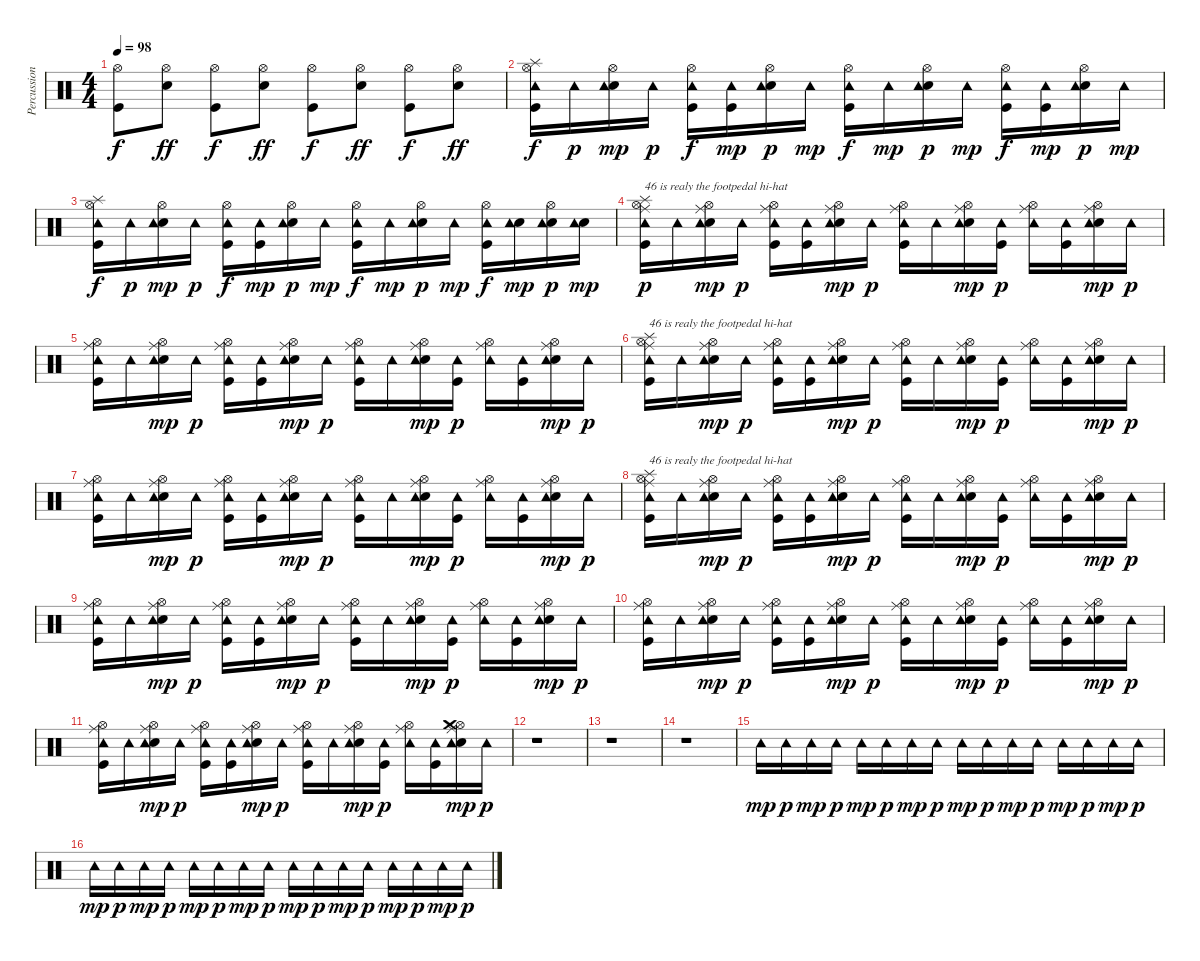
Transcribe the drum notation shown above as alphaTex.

\track ("Percussion" "Percussion") {instrument percussion}
\staff {score}
\articulation defaults
\ts (4 4)
\tempo 98
\clef neutral
\ks c
("Hi-Hat (open)" "Kick (hit)").8{dy f} ("Hi-Hat (open)" "Snare (hit) 2").8{dy ff} ("Hi-Hat (open)" "Kick (hit)").8{dy f} ("Hi-Hat (open)" "Snare (hit) 2").8{dy ff} ("Hi-Hat (open)" "Kick (hit)").8{dy f} ("Hi-Hat (open)" "Snare (hit) 2").8{dy ff} ("Hi-Hat (open)" "Kick (hit)").8{dy f} ("Hi-Hat (open)" "Snare (hit) 2").8{dy ff} |
("Splash (hit)" "Hi-Hat (open)" "Kick (hit)" "Tambourine (hit)").16{dy f} "Tambourine (hit)".16{dy p} ("Hi-Hat (open)" "Snare (hit) 2" "Tambourine (hit)").16{dy mp} "Tambourine (hit)".16{dy p} ("Hi-Hat (open)" "Kick (hit)" "Tambourine (hit)").16{dy f} ("Kick (hit)" "Tambourine (hit)").16{dy mp} ("Hi-Hat (open)" "Snare (hit) 2" "Tambourine (hit)").16{dy p} "Tambourine (hit)".16{dy mp} ("Hi-Hat (open)" "Kick (hit)" "Tambourine (hit)").16{dy f} "Tambourine (hit)".16{dy mp} ("Hi-Hat (open)" "Snare (hit) 2" "Tambourine (hit)").16{dy p} "Tambourine (hit)".16{dy mp} ("Hi-Hat (open)" "Kick (hit)" "Tambourine (hit)").16{dy f} ("Kick (hit)" "Tambourine (hit)").16{dy mp} ("Hi-Hat (open)" "Snare (hit) 2" "Tambourine (hit)").16{dy p} "Tambourine (hit)".16{dy mp} |
("Splash (hit)" "Hi-Hat (open)" "Kick (hit)" "Tambourine (hit)").16{dy f} "Tambourine (hit)".16{dy p} ("Hi-Hat (open)" "Snare (hit) 2" "Tambourine (hit)").16{dy mp} "Tambourine (hit)".16{dy p} ("Hi-Hat (open)" "Kick (hit)" "Tambourine (hit)").16{dy f} ("Kick (hit)" "Tambourine (hit)").16{dy mp} ("Hi-Hat (open)" "Snare (hit) 2" "Tambourine (hit)").16{dy p} "Tambourine (hit)".16{dy mp} ("Hi-Hat (open)" "Kick (hit)" "Tambourine (hit)").16{dy f} "Tambourine (hit)".16{dy mp} ("Hi-Hat (open)" "Snare (hit) 2" "Tambourine (hit)").16{dy p} "Tambourine (hit)".16{dy mp} ("Hi-Hat (open)" "Kick (hit)" "Tambourine (hit)").16{dy f} ("Snare (hit) 2" "Tambourine (hit)").16{dy mp} ("Hi-Hat (open)" "Snare (hit) 2" "Tambourine (hit)").16{dy p} ("Snare (hit) 2" "Tambourine (hit)").16{dy mp} |
("Ride (middle)" "Hi-Hat (open)" "Kick (hit)" "Tambourine (hit)" "Splash (hit)").16{txt "46 is realy the footpedal hi-hat" dy p} "Tambourine (hit)".16 ("Ride (middle)" "Hi-Hat (open)" "Snare (hit) 2" "Tambourine (hit)").16{dy mp} "Tambourine (hit)".16{dy p} ("Ride (middle)" "Hi-Hat (open)" "Kick (hit)" "Tambourine (hit)").16 ("Kick (hit)" "Tambourine (hit)").16 ("Ride (middle)" "Hi-Hat (open)" "Snare (hit) 2" "Tambourine (hit)").16{dy mp} "Tambourine (hit)".16{dy p} ("Ride (middle)" "Hi-Hat (open)" "Kick (hit)" "Tambourine (hit)").16 "Tambourine (hit)".16 ("Ride (middle)" "Hi-Hat (open)" "Snare (hit) 2" "Tambourine (hit)").16{dy mp} ("Kick (hit)" "Tambourine (hit)").16{dy p} ("Ride (middle)" "Hi-Hat (open)" "Tambourine (hit)").16 ("Kick (hit)" "Tambourine (hit)").16 ("Ride (middle)" "Hi-Hat (open)" "Snare (hit) 2" "Tambourine (hit)").16{dy mp} "Tambourine (hit)".16{dy p} |
("Ride (middle)" "Hi-Hat (open)" "Kick (hit)" "Tambourine (hit)").16 "Tambourine (hit)".16 ("Ride (middle)" "Hi-Hat (open)" "Snare (hit) 2" "Tambourine (hit)").16{dy mp} "Tambourine (hit)".16{dy p} ("Ride (middle)" "Hi-Hat (open)" "Kick (hit)" "Tambourine (hit)").16 ("Kick (hit)" "Tambourine (hit)").16 ("Ride (middle)" "Hi-Hat (open)" "Snare (hit) 2" "Tambourine (hit)").16{dy mp} "Tambourine (hit)".16{dy p} ("Ride (middle)" "Hi-Hat (open)" "Kick (hit)" "Tambourine (hit)").16 "Tambourine (hit)".16 ("Ride (middle)" "Hi-Hat (open)" "Snare (hit) 2" "Tambourine (hit)").16{dy mp} ("Kick (hit)" "Tambourine (hit)").16{dy p} ("Ride (middle)" "Hi-Hat (open)" "Tambourine (hit)").16 ("Kick (hit)" "Tambourine (hit)").16 ("Ride (middle)" "Hi-Hat (open)" "Snare (hit) 2" "Tambourine (hit)").16{dy mp} "Tambourine (hit)".16{dy p} |
("Ride (middle)" "Hi-Hat (open)" "Kick (hit)" "Tambourine (hit)" "Splash (hit)").16{txt "46 is realy the footpedal hi-hat"} "Tambourine (hit)".16 ("Ride (middle)" "Hi-Hat (open)" "Snare (hit) 2" "Tambourine (hit)").16{dy mp} "Tambourine (hit)".16{dy p} ("Ride (middle)" "Hi-Hat (open)" "Kick (hit)" "Tambourine (hit)").16 ("Kick (hit)" "Tambourine (hit)").16 ("Ride (middle)" "Hi-Hat (open)" "Snare (hit) 2" "Tambourine (hit)").16{dy mp} "Tambourine (hit)".16{dy p} ("Ride (middle)" "Hi-Hat (open)" "Kick (hit)" "Tambourine (hit)").16 "Tambourine (hit)".16 ("Ride (middle)" "Hi-Hat (open)" "Snare (hit) 2" "Tambourine (hit)").16{dy mp} ("Kick (hit)" "Tambourine (hit)").16{dy p} ("Ride (middle)" "Hi-Hat (open)" "Tambourine (hit)").16 ("Kick (hit)" "Tambourine (hit)").16 ("Ride (middle)" "Hi-Hat (open)" "Snare (hit) 2" "Tambourine (hit)").16{dy mp} "Tambourine (hit)".16{dy p} |
("Ride (middle)" "Hi-Hat (open)" "Kick (hit)" "Tambourine (hit)").16 "Tambourine (hit)".16 ("Ride (middle)" "Hi-Hat (open)" "Snare (hit) 2" "Tambourine (hit)").16{dy mp} "Tambourine (hit)".16{dy p} ("Ride (middle)" "Hi-Hat (open)" "Kick (hit)" "Tambourine (hit)").16 ("Kick (hit)" "Tambourine (hit)").16 ("Ride (middle)" "Hi-Hat (open)" "Snare (hit) 2" "Tambourine (hit)").16{dy mp} "Tambourine (hit)".16{dy p} ("Ride (middle)" "Hi-Hat (open)" "Kick (hit)" "Tambourine (hit)").16 "Tambourine (hit)".16 ("Ride (middle)" "Hi-Hat (open)" "Snare (hit) 2" "Tambourine (hit)").16{dy mp} ("Kick (hit)" "Tambourine (hit)").16{dy p} ("Ride (middle)" "Hi-Hat (open)" "Tambourine (hit)").16 ("Kick (hit)" "Tambourine (hit)").16 ("Ride (middle)" "Hi-Hat (open)" "Snare (hit) 2" "Tambourine (hit)").16{dy mp} "Tambourine (hit)".16{dy p} |
("Ride (middle)" "Hi-Hat (open)" "Kick (hit)" "Tambourine (hit)" "Splash (hit)").16{txt "46 is realy the footpedal hi-hat"} "Tambourine (hit)".16 ("Ride (middle)" "Hi-Hat (open)" "Snare (hit) 2" "Tambourine (hit)").16{dy mp} "Tambourine (hit)".16{dy p} ("Ride (middle)" "Hi-Hat (open)" "Kick (hit)" "Tambourine (hit)").16 ("Kick (hit)" "Tambourine (hit)").16 ("Ride (middle)" "Hi-Hat (open)" "Snare (hit) 2" "Tambourine (hit)").16{dy mp} "Tambourine (hit)".16{dy p} ("Ride (middle)" "Hi-Hat (open)" "Kick (hit)" "Tambourine (hit)").16 "Tambourine (hit)".16 ("Ride (middle)" "Hi-Hat (open)" "Snare (hit) 2" "Tambourine (hit)").16{dy mp} ("Kick (hit)" "Tambourine (hit)").16{dy p} ("Ride (middle)" "Hi-Hat (open)" "Tambourine (hit)").16 ("Kick (hit)" "Tambourine (hit)").16 ("Ride (middle)" "Hi-Hat (open)" "Snare (hit) 2" "Tambourine (hit)").16{dy mp} "Tambourine (hit)".16{dy p} |
("Ride (middle)" "Hi-Hat (open)" "Kick (hit)" "Tambourine (hit)").16 "Tambourine (hit)".16 ("Ride (middle)" "Hi-Hat (open)" "Snare (hit) 2" "Tambourine (hit)").16{dy mp} "Tambourine (hit)".16{dy p} ("Ride (middle)" "Hi-Hat (open)" "Kick (hit)" "Tambourine (hit)").16 ("Kick (hit)" "Tambourine (hit)").16 ("Ride (middle)" "Hi-Hat (open)" "Snare (hit) 2" "Tambourine (hit)").16{dy mp} "Tambourine (hit)".16{dy p} ("Ride (middle)" "Hi-Hat (open)" "Kick (hit)" "Tambourine (hit)").16 "Tambourine (hit)".16 ("Ride (middle)" "Hi-Hat (open)" "Snare (hit) 2" "Tambourine (hit)").16{dy mp} ("Kick (hit)" "Tambourine (hit)").16{dy p} ("Ride (middle)" "Hi-Hat (open)" "Tambourine (hit)").16 ("Kick (hit)" "Tambourine (hit)").16 ("Ride (middle)" "Hi-Hat (open)" "Snare (hit) 2" "Tambourine (hit)").16{dy mp} "Tambourine (hit)".16{dy p} |
("Ride (middle)" "Hi-Hat (open)" "Kick (hit)" "Tambourine (hit)").16 "Tambourine (hit)".16 ("Ride (middle)" "Hi-Hat (open)" "Snare (hit) 2" "Tambourine (hit)").16{dy mp} "Tambourine (hit)".16{dy p} ("Ride (middle)" "Hi-Hat (open)" "Kick (hit)" "Tambourine (hit)").16 ("Kick (hit)" "Tambourine (hit)").16 ("Ride (middle)" "Hi-Hat (open)" "Snare (hit) 2" "Tambourine (hit)").16{dy mp} "Tambourine (hit)".16{dy p} ("Ride (middle)" "Hi-Hat (open)" "Kick (hit)" "Tambourine (hit)").16 "Tambourine (hit)".16 ("Ride (middle)" "Hi-Hat (open)" "Snare (hit) 2" "Tambourine (hit)").16{dy mp} ("Kick (hit)" "Tambourine (hit)").16{dy p} ("Ride (middle)" "Hi-Hat (open)" "Tambourine (hit)").16 ("Kick (hit)" "Tambourine (hit)").16 ("Ride (middle)" "Hi-Hat (open)" "Snare (hit) 2" "Tambourine (hit)").16{dy mp} "Tambourine (hit)".16{dy p} |
("Ride (middle)" "Hi-Hat (open)" "Kick (hit)" "Tambourine (hit)").16 "Tambourine (hit)".16 ("Ride (middle)" "Hi-Hat (open)" "Snare (hit) 2" "Tambourine (hit)").16{dy mp} "Tambourine (hit)".16{dy p} ("Ride (middle)" "Hi-Hat (open)" "Kick (hit)" "Tambourine (hit)").16 ("Kick (hit)" "Tambourine (hit)").16 ("Ride (middle)" "Hi-Hat (open)" "Snare (hit) 2" "Tambourine (hit)").16{dy mp} "Tambourine (hit)".16{dy p} ("Ride (middle)" "Hi-Hat (open)" "Kick (hit)" "Tambourine (hit)").16 "Tambourine (hit)".16 ("Ride (middle)" "Hi-Hat (open)" "Snare (hit) 2" "Tambourine (hit)").16{dy mp} ("Kick (hit)" "Tambourine (hit)").16{dy p} ("Ride (middle)" "Hi-Hat (open)" "Tambourine (hit)").16 ("Kick (hit)" "Tambourine (hit)").16 ("Ride (middle)" "Hi-Hat (open)" "Snare (hit) 2" "Tambourine (hit)" "Crash medium (hit)").16{dy mp} "Tambourine (hit)".16{dy p} |
r.1 |
r.1 |
r.1 |
"Tambourine (hit)".16{dy mp} "Tambourine (hit)".16{dy p} "Tambourine (hit)".16{dy mp} "Tambourine (hit)".16{dy p} "Tambourine (hit)".16{dy mp} "Tambourine (hit)".16{dy p} "Tambourine (hit)".16{dy mp} "Tambourine (hit)".16{dy p} "Tambourine (hit)".16{dy mp} "Tambourine (hit)".16{dy p} "Tambourine (hit)".16{dy mp} "Tambourine (hit)".16{dy p} "Tambourine (hit)".16{dy mp} "Tambourine (hit)".16{dy p} "Tambourine (hit)".16{dy mp} "Tambourine (hit)".16{dy p} |
"Tambourine (hit)".16{dy mp} "Tambourine (hit)".16{dy p} "Tambourine (hit)".16{dy mp} "Tambourine (hit)".16{dy p} "Tambourine (hit)".16{dy mp} "Tambourine (hit)".16{dy p} "Tambourine (hit)".16{dy mp} "Tambourine (hit)".16{dy p} "Tambourine (hit)".16{dy mp} "Tambourine (hit)".16{dy p} "Tambourine (hit)".16{dy mp} "Tambourine (hit)".16{dy p} "Tambourine (hit)".16{dy mp} "Tambourine (hit)".16{dy p} "Tambourine (hit)".16{dy mp} "Tambourine (hit)".16{dy p}
